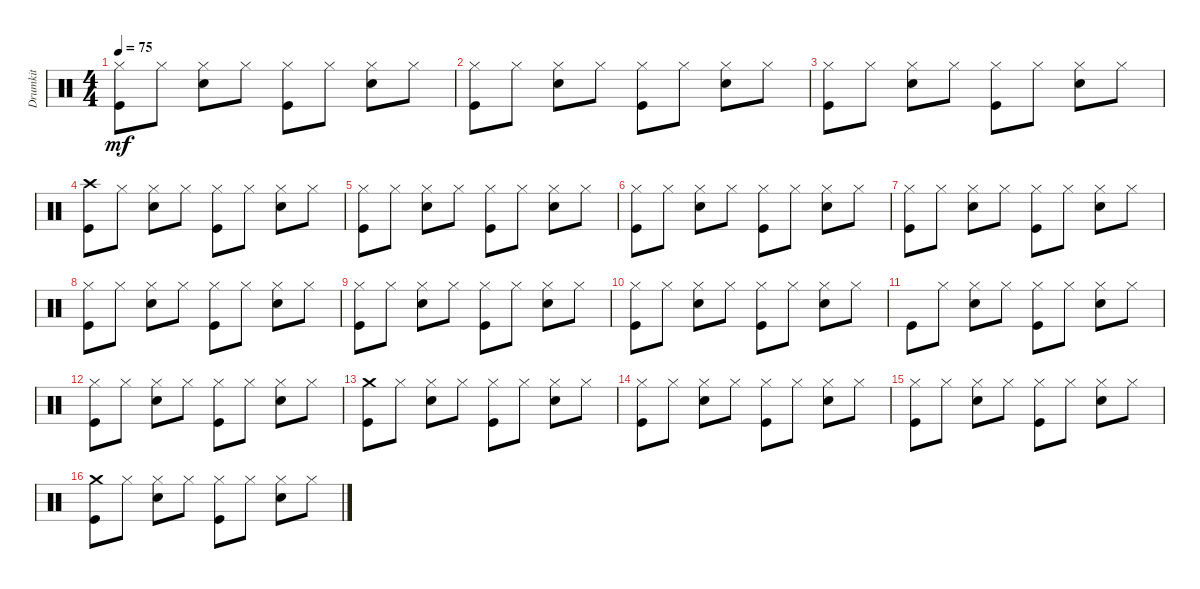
\track ("Drumkit" "Drumkit") {instrument percussion}
\staff {score}
\articulation defaults
\ts (4 4)
\tempo 75
\clef neutral
\ks c
("Kick (hit)" "Hi-Hat (closed)").8{dy mf} "Hi-Hat (closed)".8 ("Snare (hit) 2" "Hi-Hat (closed)").8 "Hi-Hat (closed)".8 ("Kick (hit)" "Hi-Hat (closed)").8 "Hi-Hat (closed)".8 ("Snare (hit) 2" "Hi-Hat (closed)").8 "Hi-Hat (closed)".8 |
("Kick (hit)" "Hi-Hat (closed)").8 "Hi-Hat (closed)".8 ("Snare (hit) 2" "Hi-Hat (closed)").8 "Hi-Hat (closed)".8 ("Kick (hit)" "Hi-Hat (closed)").8 "Hi-Hat (closed)".8 ("Snare (hit) 2" "Hi-Hat (closed)").8 "Hi-Hat (closed)".8 |
("Kick (hit)" "Hi-Hat (closed)").8 "Hi-Hat (closed)".8 ("Snare (hit) 2" "Hi-Hat (closed)").8 "Hi-Hat (closed)".8 ("Kick (hit)" "Hi-Hat (closed)").8 "Hi-Hat (closed)".8 ("Snare (hit) 2" "Hi-Hat (closed)").8 "Hi-Hat (closed)".8 |
("Kick (hit)" "Crash high (hit)").8 "Hi-Hat (closed)".8 ("Snare (hit) 2" "Hi-Hat (closed)").8 "Hi-Hat (closed)".8 ("Kick (hit)" "Hi-Hat (closed)").8 "Hi-Hat (closed)".8 ("Snare (hit) 2" "Hi-Hat (closed)").8 "Hi-Hat (closed)".8 |
("Kick (hit)" "Hi-Hat (closed)").8 "Hi-Hat (closed)".8 ("Snare (hit) 2" "Hi-Hat (closed)").8 "Hi-Hat (closed)".8 ("Kick (hit)" "Hi-Hat (closed)").8 "Hi-Hat (closed)".8 ("Snare (hit) 2" "Hi-Hat (closed)").8 "Hi-Hat (closed)".8 |
("Kick (hit)" "Hi-Hat (closed)").8 "Hi-Hat (closed)".8 ("Snare (hit) 2" "Hi-Hat (closed)").8 "Hi-Hat (closed)".8 ("Kick (hit)" "Hi-Hat (closed)").8 "Hi-Hat (closed)".8 ("Snare (hit) 2" "Hi-Hat (closed)").8 "Hi-Hat (closed)".8 |
("Kick (hit)" "Hi-Hat (closed)").8 "Hi-Hat (closed)".8 ("Snare (hit) 2" "Hi-Hat (closed)").8 "Hi-Hat (closed)".8 ("Kick (hit)" "Hi-Hat (closed)").8 "Hi-Hat (closed)".8 ("Snare (hit) 2" "Hi-Hat (closed)").8 "Hi-Hat (closed)".8 |
("Kick (hit)" "Hi-Hat (closed)").8 "Hi-Hat (closed)".8 ("Snare (hit) 2" "Hi-Hat (closed)").8 "Hi-Hat (closed)".8 ("Kick (hit)" "Hi-Hat (closed)").8 "Hi-Hat (closed)".8 ("Snare (hit) 2" "Hi-Hat (closed)").8 "Hi-Hat (closed)".8 |
("Kick (hit)" "Hi-Hat (closed)").8 "Hi-Hat (closed)".8 ("Snare (hit) 2" "Hi-Hat (closed)").8 "Hi-Hat (closed)".8 ("Kick (hit)" "Hi-Hat (closed)").8 "Hi-Hat (closed)".8 ("Snare (hit) 2" "Hi-Hat (closed)").8 "Hi-Hat (closed)".8 |
("Kick (hit)" "Hi-Hat (closed)").8 "Hi-Hat (closed)".8 ("Snare (hit) 2" "Hi-Hat (closed)").8 "Hi-Hat (closed)".8 ("Kick (hit)" "Hi-Hat (closed)").8 "Hi-Hat (closed)".8 ("Snare (hit) 2" "Hi-Hat (closed)").8 "Hi-Hat (closed)".8 |
"Kick (hit)".8 "Hi-Hat (closed)".8 ("Snare (hit) 2" "Hi-Hat (closed)").8 "Hi-Hat (closed)".8 ("Kick (hit)" "Hi-Hat (closed)").8 "Hi-Hat (closed)".8 ("Snare (hit) 2" "Hi-Hat (closed)").8 "Hi-Hat (closed)".8 |
("Kick (hit)" "Hi-Hat (closed)").8 "Hi-Hat (closed)".8 ("Snare (hit) 2" "Hi-Hat (closed)").8 "Hi-Hat (closed)".8 ("Kick (hit)" "Hi-Hat (closed)").8 "Hi-Hat (closed)".8 ("Snare (hit) 2" "Hi-Hat (closed)").8 "Hi-Hat (closed)".8 |
("Kick (hit)" "Crash medium (hit)").8 "Hi-Hat (closed)".8 ("Snare (hit) 2" "Hi-Hat (closed)").8 "Hi-Hat (closed)".8 ("Kick (hit)" "Hi-Hat (closed)").8 "Hi-Hat (closed)".8 ("Snare (hit) 2" "Hi-Hat (closed)").8 "Hi-Hat (closed)".8 |
("Kick (hit)" "Hi-Hat (closed)").8 "Hi-Hat (closed)".8 ("Snare (hit) 2" "Hi-Hat (closed)").8 "Hi-Hat (closed)".8 ("Kick (hit)" "Hi-Hat (closed)").8 "Hi-Hat (closed)".8 ("Snare (hit) 2" "Hi-Hat (closed)").8 "Hi-Hat (closed)".8 |
("Kick (hit)" "Hi-Hat (closed)").8 "Hi-Hat (closed)".8 ("Snare (hit) 2" "Hi-Hat (closed)").8 "Hi-Hat (closed)".8 ("Kick (hit)" "Hi-Hat (closed)").8 "Hi-Hat (closed)".8 ("Snare (hit) 2" "Hi-Hat (closed)").8 "Hi-Hat (closed)".8 |
("Kick (hit)" "Crash medium (hit)").8 "Hi-Hat (closed)".8 ("Snare (hit) 2" "Hi-Hat (closed)").8 "Hi-Hat (closed)".8 ("Kick (hit)" "Hi-Hat (closed)").8 "Hi-Hat (closed)".8 ("Snare (hit) 2" "Hi-Hat (closed)").8 "Hi-Hat (closed)".8
